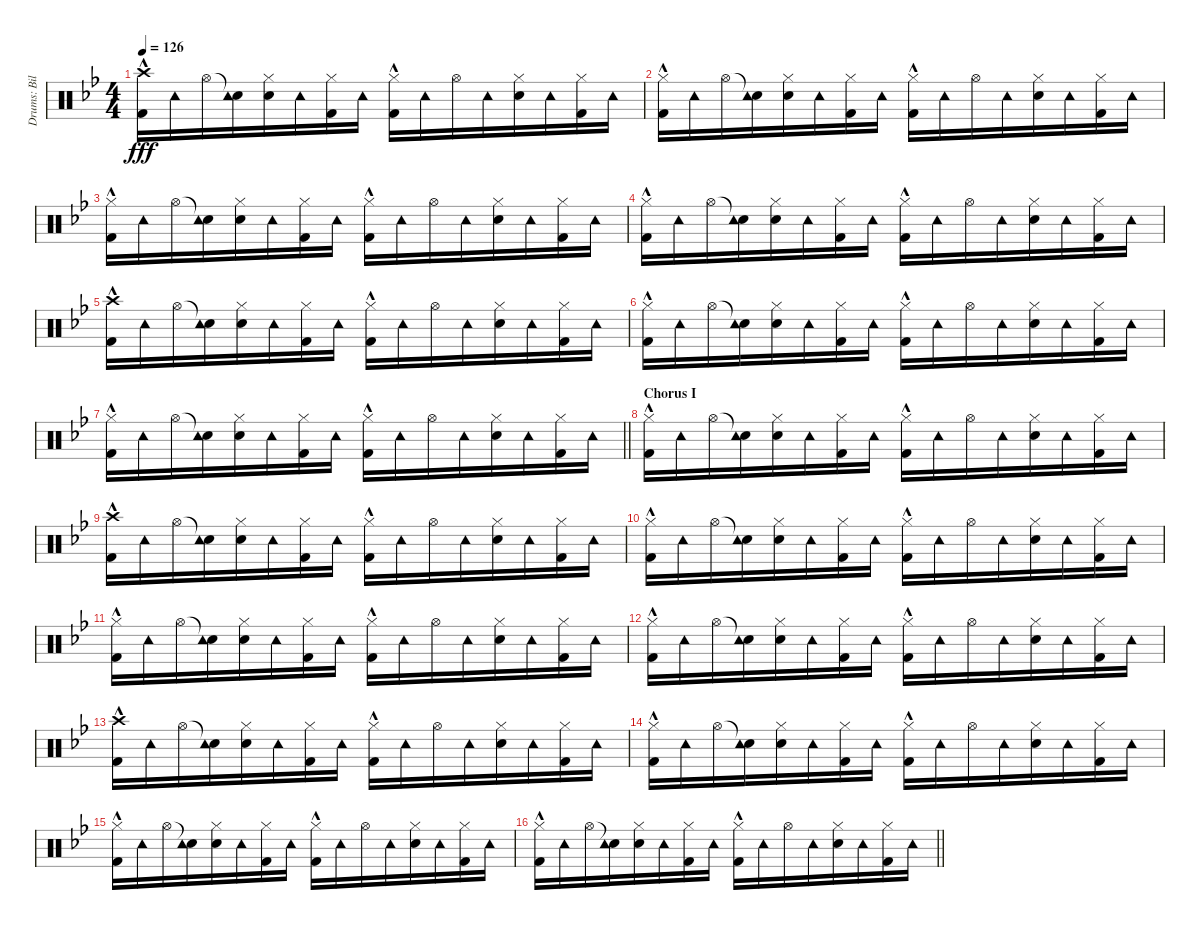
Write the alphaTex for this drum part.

\track ("Drums: Bill" "Drums: Bil") {instrument percussion}
\staff {score}
\articulation defaults
\ts (4 4)
\tempo 126
\clef neutral
\ks bb
("Crash high (hit)"{hac} "Kick (hit) 2"{hac}).16{dy fff} "Tambourine (hit)".16 "Hi-Hat (open)".16 ("Snare (hit)"{t} "Tambourine (hit)").16{beam merge} ("Hi-Hat (closed)" "Electric Snare (hit)").16 "Tambourine (hit)".16 ("Hi-Hat (closed)" "Kick (hit) 2").16 "Tambourine (hit)".16 ("Hi-Hat (closed)" "Kick (hit) 2"{hac}).16 "Tambourine (hit)".16 "Hi-Hat (open)".16 "Tambourine (hit)".16{beam merge} ("Hi-Hat (closed)" "Electric Snare (hit)").16 "Tambourine (hit)".16 ("Hi-Hat (closed)" "Kick (hit) 2").16 "Tambourine (hit)".16 |
("Hi-Hat (closed)" "Kick (hit) 2"{hac}).16 "Tambourine (hit)".16 "Hi-Hat (open)".16 ("Snare (hit)"{t} "Tambourine (hit)").16{beam merge} ("Hi-Hat (closed)" "Electric Snare (hit)").16 "Tambourine (hit)".16 ("Hi-Hat (closed)" "Kick (hit) 2").16 "Tambourine (hit)".16 ("Hi-Hat (closed)" "Kick (hit) 2"{hac}).16 "Tambourine (hit)".16 "Hi-Hat (open)".16 "Tambourine (hit)".16{beam merge} ("Hi-Hat (closed)" "Electric Snare (hit)").16 "Tambourine (hit)".16 ("Hi-Hat (closed)" "Kick (hit) 2").16 "Tambourine (hit)".16 |
("Hi-Hat (closed)" "Kick (hit) 2"{hac}).16 "Tambourine (hit)".16 "Hi-Hat (open)".16 ("Snare (hit)"{t} "Tambourine (hit)").16{beam merge} ("Hi-Hat (closed)" "Electric Snare (hit)").16 "Tambourine (hit)".16 ("Hi-Hat (closed)" "Kick (hit) 2").16 "Tambourine (hit)".16 ("Hi-Hat (closed)" "Kick (hit) 2"{hac}).16 "Tambourine (hit)".16 "Hi-Hat (open)".16 "Tambourine (hit)".16{beam merge} ("Hi-Hat (closed)" "Electric Snare (hit)").16 "Tambourine (hit)".16 ("Hi-Hat (closed)" "Kick (hit) 2").16 "Tambourine (hit)".16 |
("Hi-Hat (closed)" "Kick (hit) 2"{hac}).16 "Tambourine (hit)".16 "Hi-Hat (open)".16 ("Snare (hit)"{t} "Tambourine (hit)").16{beam merge} ("Hi-Hat (closed)" "Electric Snare (hit)").16 "Tambourine (hit)".16 ("Hi-Hat (closed)" "Kick (hit) 2").16 "Tambourine (hit)".16 ("Hi-Hat (closed)" "Kick (hit) 2"{hac}).16 "Tambourine (hit)".16 "Hi-Hat (open)".16 "Tambourine (hit)".16{beam merge} ("Hi-Hat (closed)" "Electric Snare (hit)").16 "Tambourine (hit)".16 ("Hi-Hat (closed)" "Kick (hit) 2").16 "Tambourine (hit)".16 |
("Crash high (hit)"{hac} "Kick (hit) 2"{hac}).16 "Tambourine (hit)".16 "Hi-Hat (open)".16 ("Snare (hit)"{t} "Tambourine (hit)").16{beam merge} ("Hi-Hat (closed)" "Electric Snare (hit)").16 "Tambourine (hit)".16 ("Hi-Hat (closed)" "Kick (hit) 2").16 "Tambourine (hit)".16 ("Hi-Hat (closed)" "Kick (hit) 2"{hac}).16 "Tambourine (hit)".16 "Hi-Hat (open)".16 "Tambourine (hit)".16{beam merge} ("Hi-Hat (closed)" "Electric Snare (hit)").16 "Tambourine (hit)".16 ("Hi-Hat (closed)" "Kick (hit) 2").16 "Tambourine (hit)".16 |
("Hi-Hat (closed)" "Kick (hit) 2"{hac}).16 "Tambourine (hit)".16 "Hi-Hat (open)".16 ("Snare (hit)"{t} "Tambourine (hit)").16{beam merge} ("Hi-Hat (closed)" "Electric Snare (hit)").16 "Tambourine (hit)".16 ("Hi-Hat (closed)" "Kick (hit) 2").16 "Tambourine (hit)".16 ("Hi-Hat (closed)" "Kick (hit) 2"{hac}).16 "Tambourine (hit)".16 "Hi-Hat (open)".16 "Tambourine (hit)".16{beam merge} ("Hi-Hat (closed)" "Electric Snare (hit)").16 "Tambourine (hit)".16 ("Hi-Hat (closed)" "Kick (hit) 2").16 "Tambourine (hit)".16 |
\barLineRight lightlight
("Hi-Hat (closed)" "Kick (hit) 2"{hac}).16 "Tambourine (hit)".16 "Hi-Hat (open)".16 ("Snare (hit)"{t} "Tambourine (hit)").16{beam merge} ("Hi-Hat (closed)" "Electric Snare (hit)").16 "Tambourine (hit)".16 ("Hi-Hat (closed)" "Kick (hit) 2").16 "Tambourine (hit)".16 ("Hi-Hat (closed)" "Kick (hit) 2"{hac}).16 "Tambourine (hit)".16 "Hi-Hat (open)".16 "Tambourine (hit)".16{beam merge} ("Hi-Hat (closed)" "Electric Snare (hit)").16 "Tambourine (hit)".16 ("Hi-Hat (closed)" "Kick (hit) 2").16 "Tambourine (hit)".16 |
\section ("" "Chorus I")
("Hi-Hat (closed)" "Kick (hit) 2"{hac}).16 "Tambourine (hit)".16 "Hi-Hat (open)".16 ("Snare (hit)"{t} "Tambourine (hit)").16{beam merge} ("Hi-Hat (closed)" "Electric Snare (hit)").16 "Tambourine (hit)".16 ("Hi-Hat (closed)" "Kick (hit) 2").16 "Tambourine (hit)".16 ("Hi-Hat (closed)" "Kick (hit) 2"{hac}).16 "Tambourine (hit)".16 "Hi-Hat (open)".16 "Tambourine (hit)".16{beam merge} ("Hi-Hat (closed)" "Electric Snare (hit)").16 "Tambourine (hit)".16 ("Hi-Hat (closed)" "Kick (hit) 2").16 "Tambourine (hit)".16 |
("Crash high (hit)"{hac} "Kick (hit) 2"{hac}).16 "Tambourine (hit)".16 "Hi-Hat (open)".16 ("Snare (hit)"{t} "Tambourine (hit)").16{beam merge} ("Hi-Hat (closed)" "Electric Snare (hit)").16 "Tambourine (hit)".16 ("Hi-Hat (closed)" "Kick (hit) 2").16 "Tambourine (hit)".16 ("Hi-Hat (closed)" "Kick (hit) 2"{hac}).16 "Tambourine (hit)".16 "Hi-Hat (open)".16 "Tambourine (hit)".16{beam merge} ("Hi-Hat (closed)" "Electric Snare (hit)").16 "Tambourine (hit)".16 ("Hi-Hat (closed)" "Kick (hit) 2").16 "Tambourine (hit)".16 |
("Hi-Hat (closed)" "Kick (hit) 2"{hac}).16 "Tambourine (hit)".16 "Hi-Hat (open)".16 ("Snare (hit)"{t} "Tambourine (hit)").16{beam merge} ("Hi-Hat (closed)" "Electric Snare (hit)").16 "Tambourine (hit)".16 ("Hi-Hat (closed)" "Kick (hit) 2").16 "Tambourine (hit)".16 ("Hi-Hat (closed)" "Kick (hit) 2"{hac}).16 "Tambourine (hit)".16 "Hi-Hat (open)".16 "Tambourine (hit)".16{beam merge} ("Hi-Hat (closed)" "Electric Snare (hit)").16 "Tambourine (hit)".16 ("Hi-Hat (closed)" "Kick (hit) 2").16 "Tambourine (hit)".16 |
("Hi-Hat (closed)" "Kick (hit) 2"{hac}).16 "Tambourine (hit)".16 "Hi-Hat (open)".16 ("Snare (hit)"{t} "Tambourine (hit)").16{beam merge} ("Hi-Hat (closed)" "Electric Snare (hit)").16 "Tambourine (hit)".16 ("Hi-Hat (closed)" "Kick (hit) 2").16 "Tambourine (hit)".16 ("Hi-Hat (closed)" "Kick (hit) 2"{hac}).16 "Tambourine (hit)".16 "Hi-Hat (open)".16 "Tambourine (hit)".16{beam merge} ("Hi-Hat (closed)" "Electric Snare (hit)").16 "Tambourine (hit)".16 ("Hi-Hat (closed)" "Kick (hit) 2").16 "Tambourine (hit)".16 |
("Hi-Hat (closed)" "Kick (hit) 2"{hac}).16 "Tambourine (hit)".16 "Hi-Hat (open)".16 ("Snare (hit)"{t} "Tambourine (hit)").16{beam merge} ("Hi-Hat (closed)" "Electric Snare (hit)").16 "Tambourine (hit)".16 ("Hi-Hat (closed)" "Kick (hit) 2").16 "Tambourine (hit)".16 ("Hi-Hat (closed)" "Kick (hit) 2"{hac}).16 "Tambourine (hit)".16 "Hi-Hat (open)".16 "Tambourine (hit)".16{beam merge} ("Hi-Hat (closed)" "Electric Snare (hit)").16 "Tambourine (hit)".16 ("Hi-Hat (closed)" "Kick (hit) 2").16 "Tambourine (hit)".16 |
("Crash high (hit)"{hac} "Kick (hit) 2"{hac}).16 "Tambourine (hit)".16 "Hi-Hat (open)".16 ("Snare (hit)"{t} "Tambourine (hit)").16{beam merge} ("Hi-Hat (closed)" "Electric Snare (hit)").16 "Tambourine (hit)".16 ("Hi-Hat (closed)" "Kick (hit) 2").16 "Tambourine (hit)".16 ("Hi-Hat (closed)" "Kick (hit) 2"{hac}).16 "Tambourine (hit)".16 "Hi-Hat (open)".16 "Tambourine (hit)".16{beam merge} ("Hi-Hat (closed)" "Electric Snare (hit)").16 "Tambourine (hit)".16 ("Hi-Hat (closed)" "Kick (hit) 2").16 "Tambourine (hit)".16 |
("Hi-Hat (closed)" "Kick (hit) 2"{hac}).16 "Tambourine (hit)".16 "Hi-Hat (open)".16 ("Snare (hit)"{t} "Tambourine (hit)").16{beam merge} ("Hi-Hat (closed)" "Electric Snare (hit)").16 "Tambourine (hit)".16 ("Hi-Hat (closed)" "Kick (hit) 2").16 "Tambourine (hit)".16 ("Hi-Hat (closed)" "Kick (hit) 2"{hac}).16 "Tambourine (hit)".16 "Hi-Hat (open)".16 "Tambourine (hit)".16{beam merge} ("Hi-Hat (closed)" "Electric Snare (hit)").16 "Tambourine (hit)".16 ("Hi-Hat (closed)" "Kick (hit) 2").16 "Tambourine (hit)".16 |
("Hi-Hat (closed)" "Kick (hit) 2"{hac}).16 "Tambourine (hit)".16 "Hi-Hat (open)".16 ("Snare (hit)"{t} "Tambourine (hit)").16{beam merge} ("Hi-Hat (closed)" "Electric Snare (hit)").16 "Tambourine (hit)".16 ("Hi-Hat (closed)" "Kick (hit) 2").16 "Tambourine (hit)".16 ("Hi-Hat (closed)" "Kick (hit) 2"{hac}).16 "Tambourine (hit)".16 "Hi-Hat (open)".16 "Tambourine (hit)".16{beam merge} ("Hi-Hat (closed)" "Electric Snare (hit)").16 "Tambourine (hit)".16 ("Hi-Hat (closed)" "Kick (hit) 2").16 "Tambourine (hit)".16 |
\barLineRight lightlight
("Hi-Hat (closed)" "Kick (hit) 2"{hac}).16 "Tambourine (hit)".16 "Hi-Hat (open)".16 ("Snare (hit)"{t} "Tambourine (hit)").16{beam merge} ("Hi-Hat (closed)" "Electric Snare (hit)").16 "Tambourine (hit)".16 ("Hi-Hat (closed)" "Kick (hit) 2").16 "Tambourine (hit)".16 ("Hi-Hat (closed)" "Kick (hit) 2"{hac}).16 "Tambourine (hit)".16 "Hi-Hat (open)".16 "Tambourine (hit)".16{beam merge} ("Hi-Hat (closed)" "Electric Snare (hit)").16 "Tambourine (hit)".16 ("Hi-Hat (closed)" "Kick (hit) 2").16 "Tambourine (hit)".16
